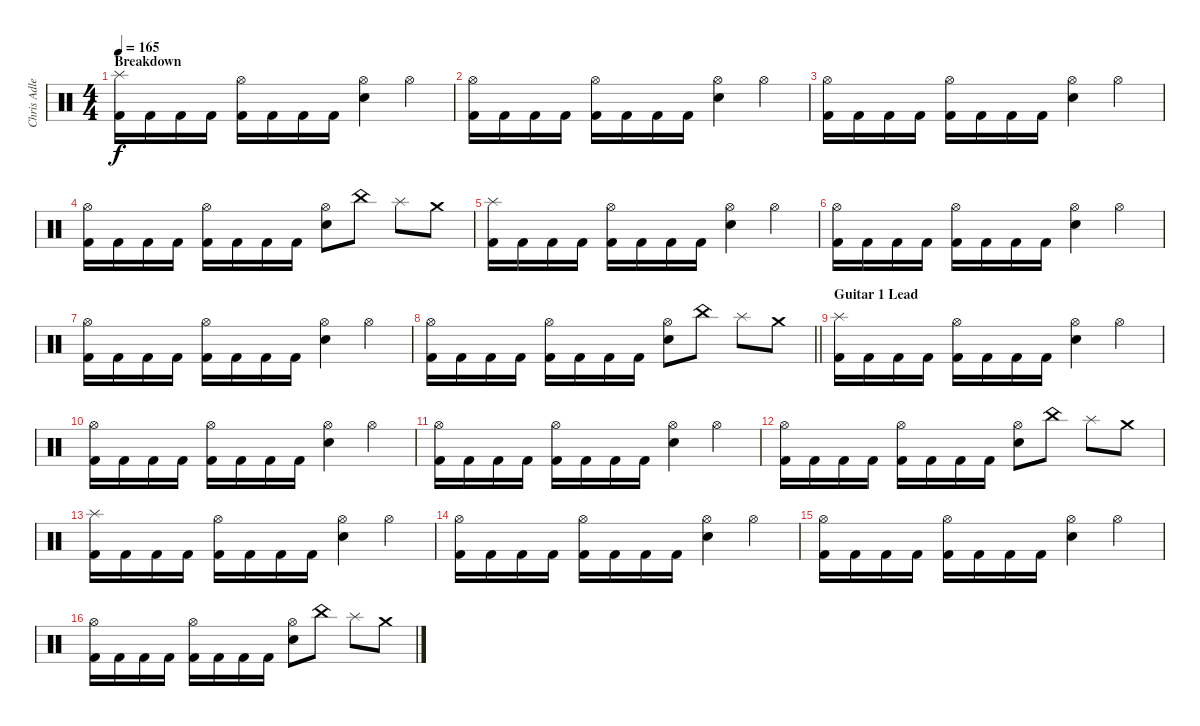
\track ("Chris Adler" "Chris Adle") {instrument percussion}
\staff {score}
\articulation defaults
\ts (4 4)
\section ("" "Breakdown")
\tempo 165
\clef neutral
\ks c
("Splash (hit)" "Kick (hit) 2").16{dy f} "Kick (hit) 2".16 "Kick (hit) 2".16 "Kick (hit) 2".16 ("Hi-Hat (open)" "Kick (hit) 2").16 "Kick (hit) 2".16 "Kick (hit) 2".16 "Kick (hit) 2".16 ("Hi-Hat (open)" "Electric Snare (hit)").4 "Hi-Hat (open)".4 |
("Hi-Hat (open)" "Kick (hit) 2").16 "Kick (hit) 2".16 "Kick (hit) 2".16 "Kick (hit) 2".16 ("Hi-Hat (open)" "Kick (hit) 2").16 "Kick (hit) 2".16 "Kick (hit) 2".16 "Kick (hit) 2".16 ("Hi-Hat (open)" "Electric Snare (hit)").4 "Hi-Hat (open)".4 |
("Hi-Hat (open)" "Kick (hit) 2").16 "Kick (hit) 2".16 "Kick (hit) 2".16 "Kick (hit) 2".16 ("Hi-Hat (open)" "Kick (hit) 2").16 "Kick (hit) 2".16 "Kick (hit) 2".16 "Kick (hit) 2".16 ("Hi-Hat (open)" "Electric Snare (hit)").4 "Hi-Hat (open)".4 |
("Hi-Hat (open)" "Kick (hit) 2").16 "Kick (hit) 2".16 "Kick (hit) 2".16 "Kick (hit) 2".16 ("Hi-Hat (open)" "Kick (hit) 2").16 "Kick (hit) 2".16 "Kick (hit) 2".16 "Kick (hit) 2".16 ("Hi-Hat (open)" "Electric Snare (hit)").8 "China (hit)".8 "Splash (hit)".8 "Crash medium (hit)".8 |
("Splash (hit)" "Kick (hit) 2").16 "Kick (hit) 2".16 "Kick (hit) 2".16 "Kick (hit) 2".16 ("Hi-Hat (open)" "Kick (hit) 2").16 "Kick (hit) 2".16 "Kick (hit) 2".16 "Kick (hit) 2".16 ("Hi-Hat (open)" "Electric Snare (hit)").4 "Hi-Hat (open)".4 |
("Hi-Hat (open)" "Kick (hit) 2").16 "Kick (hit) 2".16 "Kick (hit) 2".16 "Kick (hit) 2".16 ("Hi-Hat (open)" "Kick (hit) 2").16 "Kick (hit) 2".16 "Kick (hit) 2".16 "Kick (hit) 2".16 ("Hi-Hat (open)" "Electric Snare (hit)").4 "Hi-Hat (open)".4 |
("Hi-Hat (open)" "Kick (hit) 2").16 "Kick (hit) 2".16 "Kick (hit) 2".16 "Kick (hit) 2".16 ("Hi-Hat (open)" "Kick (hit) 2").16 "Kick (hit) 2".16 "Kick (hit) 2".16 "Kick (hit) 2".16 ("Hi-Hat (open)" "Electric Snare (hit)").4 "Hi-Hat (open)".4 |
\barLineRight lightlight
("Hi-Hat (open)" "Kick (hit) 2").16 "Kick (hit) 2".16 "Kick (hit) 2".16 "Kick (hit) 2".16 ("Hi-Hat (open)" "Kick (hit) 2").16 "Kick (hit) 2".16 "Kick (hit) 2".16 "Kick (hit) 2".16 ("Hi-Hat (open)" "Electric Snare (hit)").8 "China (hit)".8 "Splash (hit)".8 "Crash medium (hit)".8 |
\section ("" "Guitar 1 Lead")
("Splash (hit)" "Kick (hit) 2").16 "Kick (hit) 2".16 "Kick (hit) 2".16 "Kick (hit) 2".16 ("Hi-Hat (open)" "Kick (hit) 2").16 "Kick (hit) 2".16 "Kick (hit) 2".16 "Kick (hit) 2".16 ("Hi-Hat (open)" "Electric Snare (hit)").4 "Hi-Hat (open)".4 |
("Hi-Hat (open)" "Kick (hit) 2").16 "Kick (hit) 2".16 "Kick (hit) 2".16 "Kick (hit) 2".16 ("Hi-Hat (open)" "Kick (hit) 2").16 "Kick (hit) 2".16 "Kick (hit) 2".16 "Kick (hit) 2".16 ("Hi-Hat (open)" "Electric Snare (hit)").4 "Hi-Hat (open)".4 |
("Hi-Hat (open)" "Kick (hit) 2").16 "Kick (hit) 2".16 "Kick (hit) 2".16 "Kick (hit) 2".16 ("Hi-Hat (open)" "Kick (hit) 2").16 "Kick (hit) 2".16 "Kick (hit) 2".16 "Kick (hit) 2".16 ("Hi-Hat (open)" "Electric Snare (hit)").4 "Hi-Hat (open)".4 |
("Hi-Hat (open)" "Kick (hit) 2").16 "Kick (hit) 2".16 "Kick (hit) 2".16 "Kick (hit) 2".16 ("Hi-Hat (open)" "Kick (hit) 2").16 "Kick (hit) 2".16 "Kick (hit) 2".16 "Kick (hit) 2".16 ("Hi-Hat (open)" "Electric Snare (hit)").8 "China (hit)".8 "Splash (hit)".8 "Crash medium (hit)".8 |
("Splash (hit)" "Kick (hit) 2").16 "Kick (hit) 2".16 "Kick (hit) 2".16 "Kick (hit) 2".16 ("Hi-Hat (open)" "Kick (hit) 2").16 "Kick (hit) 2".16 "Kick (hit) 2".16 "Kick (hit) 2".16 ("Hi-Hat (open)" "Electric Snare (hit)").4 "Hi-Hat (open)".4 |
("Hi-Hat (open)" "Kick (hit) 2").16 "Kick (hit) 2".16 "Kick (hit) 2".16 "Kick (hit) 2".16 ("Hi-Hat (open)" "Kick (hit) 2").16 "Kick (hit) 2".16 "Kick (hit) 2".16 "Kick (hit) 2".16 ("Hi-Hat (open)" "Electric Snare (hit)").4 "Hi-Hat (open)".4 |
("Hi-Hat (open)" "Kick (hit) 2").16 "Kick (hit) 2".16 "Kick (hit) 2".16 "Kick (hit) 2".16 ("Hi-Hat (open)" "Kick (hit) 2").16 "Kick (hit) 2".16 "Kick (hit) 2".16 "Kick (hit) 2".16 ("Hi-Hat (open)" "Electric Snare (hit)").4 "Hi-Hat (open)".4 |
("Hi-Hat (open)" "Kick (hit) 2").16 "Kick (hit) 2".16 "Kick (hit) 2".16 "Kick (hit) 2".16 ("Hi-Hat (open)" "Kick (hit) 2").16 "Kick (hit) 2".16 "Kick (hit) 2".16 "Kick (hit) 2".16 ("Hi-Hat (open)" "Electric Snare (hit)").8 "China (hit)".8 "Splash (hit)".8 "Crash medium (hit)".8
